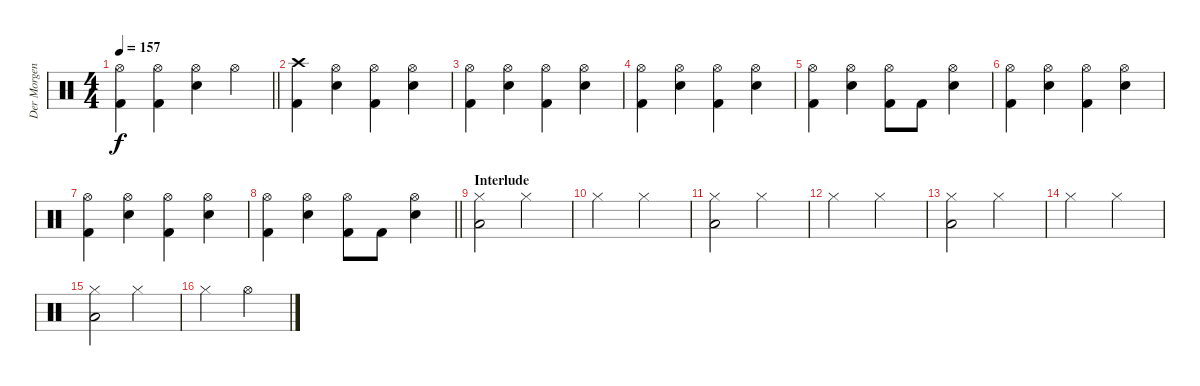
\track ("Der Morgenstern" "Der Morgen") {instrument percussion}
\staff {score}
\articulation defaults
\ts (4 4)
\tempo 157
\clef neutral
\barLineRight lightlight
\ks c
("Hi-Hat (open)" "Kick (hit) 2").4{dy f} ("Hi-Hat (open)" "Kick (hit) 2").4 ("Hi-Hat (open)" "Electric Snare (hit)").4 "Hi-Hat (open)".4 |
("Crash high (hit)" "Kick (hit) 2").4 ("Hi-Hat (open)" "Electric Snare (hit)").4 ("Hi-Hat (open)" "Kick (hit) 2").4 ("Hi-Hat (open)" "Electric Snare (hit)").4 |
("Hi-Hat (open)" "Kick (hit) 2").4 ("Hi-Hat (open)" "Electric Snare (hit)").4 ("Hi-Hat (open)" "Kick (hit) 2").4 ("Hi-Hat (open)" "Electric Snare (hit)").4 |
("Hi-Hat (open)" "Kick (hit) 2").4 ("Hi-Hat (open)" "Electric Snare (hit)").4 ("Hi-Hat (open)" "Kick (hit) 2").4 ("Hi-Hat (open)" "Electric Snare (hit)").4 |
("Hi-Hat (open)" "Kick (hit) 2").4 ("Hi-Hat (open)" "Electric Snare (hit)").4 ("Hi-Hat (open)" "Kick (hit) 2").8 "Kick (hit) 2".8 ("Hi-Hat (open)" "Electric Snare (hit)").4 |
("Hi-Hat (open)" "Kick (hit) 2").4 ("Hi-Hat (open)" "Electric Snare (hit)").4 ("Hi-Hat (open)" "Kick (hit) 2").4 ("Hi-Hat (open)" "Electric Snare (hit)").4 |
("Hi-Hat (open)" "Kick (hit) 2").4 ("Hi-Hat (open)" "Electric Snare (hit)").4 ("Hi-Hat (open)" "Kick (hit) 2").4 ("Hi-Hat (open)" "Electric Snare (hit)").4 |
\barLineRight lightlight
("Hi-Hat (open)" "Kick (hit) 2").4 ("Hi-Hat (open)" "Electric Snare (hit)").4 ("Hi-Hat (open)" "Kick (hit) 2").8 "Kick (hit) 2".8 ("Hi-Hat (open)" "Electric Snare (hit)").4 |
\section ("" "Interlude")
("Hi-Hat (closed)" "Low Floor Tom (hit)").2 "Hi-Hat (closed)".2 |
"Hi-Hat (closed)".2 "Hi-Hat (closed)".2 |
("Hi-Hat (closed)" "Low Floor Tom (hit)").2 "Hi-Hat (closed)".2 |
"Hi-Hat (closed)".2 "Hi-Hat (closed)".2 |
("Hi-Hat (closed)" "Low Floor Tom (hit)").2 "Hi-Hat (closed)".2 |
"Hi-Hat (closed)".2 "Hi-Hat (closed)".2 |
("Hi-Hat (closed)" "Low Floor Tom (hit)").2 "Hi-Hat (closed)".2 |
"Hi-Hat (closed)".2 "Hi-Hat (open)".2
